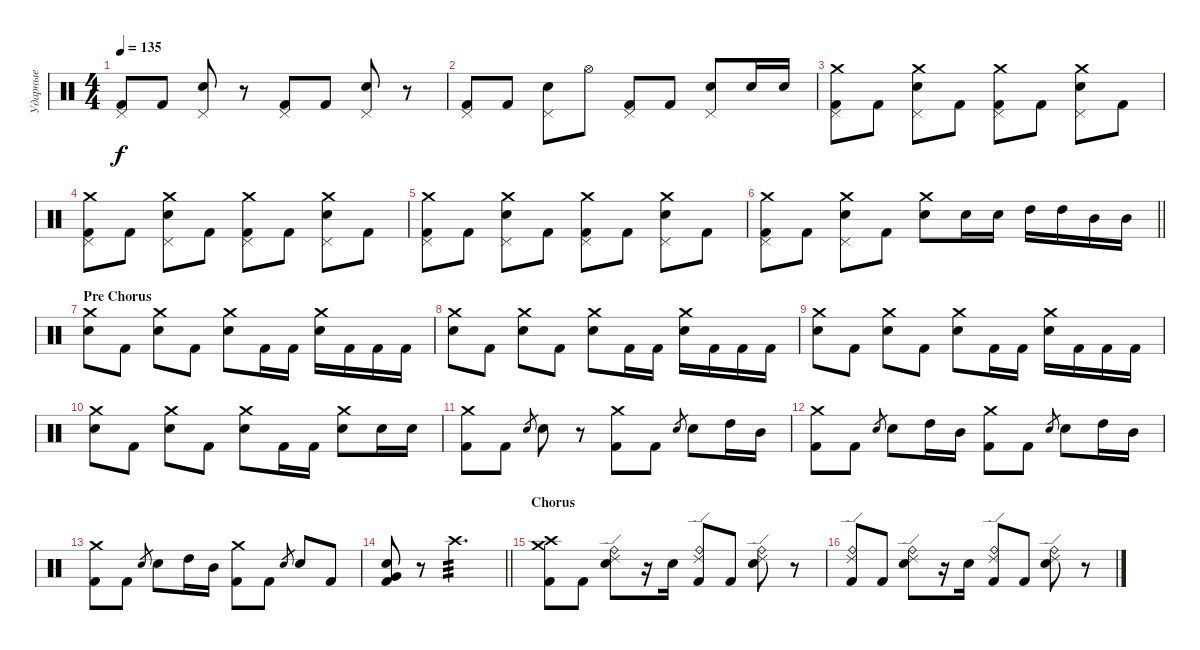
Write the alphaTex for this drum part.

\track ("Ударные" "Ударные") {instrument percussion}
\staff {score}
\articulation defaults
\ts (4 4)
\tempo 135
\clef neutral
\ks c
("Pedal Hi-Hat (hit)" "Kick (hit) 2").8{dy f} "Kick (hit) 2".8 ("Pedal Hi-Hat (hit)" "Electric Snare (hit)").8 r.8 ("Pedal Hi-Hat (hit)" "Kick (hit) 2").8 "Kick (hit) 2".8 ("Pedal Hi-Hat (hit)" "Electric Snare (hit)").8 r.8 |
("Pedal Hi-Hat (hit)" "Kick (hit) 2").8 "Kick (hit) 2".8 ("Pedal Hi-Hat (hit)" "Electric Snare (hit)").8 "Hi-Hat (open)".8 ("Pedal Hi-Hat (hit)" "Kick (hit) 2").8 "Kick (hit) 2".8 ("Pedal Hi-Hat (hit)" "Electric Snare (hit)").8 "Electric Snare (hit)".16 "Electric Snare (hit)".16 |
("Crash medium (hit)" "Pedal Hi-Hat (hit)" "Kick (hit) 2").8 "Kick (hit) 2".8 ("Crash medium (hit)" "Pedal Hi-Hat (hit)" "Electric Snare (hit)").8 "Kick (hit) 2".8 ("Crash medium (hit)" "Pedal Hi-Hat (hit)" "Kick (hit) 2").8 "Kick (hit) 2".8 ("Crash medium (hit)" "Pedal Hi-Hat (hit)" "Electric Snare (hit)").8 "Kick (hit) 2".8 |
("Crash medium (hit)" "Pedal Hi-Hat (hit)" "Kick (hit) 2").8 "Kick (hit) 2".8 ("Crash medium (hit)" "Pedal Hi-Hat (hit)" "Electric Snare (hit)").8 "Kick (hit) 2".8 ("Crash medium (hit)" "Pedal Hi-Hat (hit)" "Kick (hit) 2").8 "Kick (hit) 2".8 ("Crash medium (hit)" "Pedal Hi-Hat (hit)" "Electric Snare (hit)").8 "Kick (hit) 2".8 |
("Crash medium (hit)" "Pedal Hi-Hat (hit)" "Kick (hit) 2").8 "Kick (hit) 2".8 ("Crash medium (hit)" "Pedal Hi-Hat (hit)" "Electric Snare (hit)").8 "Kick (hit) 2".8 ("Crash medium (hit)" "Pedal Hi-Hat (hit)" "Kick (hit) 2").8 "Kick (hit) 2".8 ("Crash medium (hit)" "Pedal Hi-Hat (hit)" "Electric Snare (hit)").8 "Kick (hit) 2".8 |
\barLineRight lightlight
("Crash medium (hit)" "Pedal Hi-Hat (hit)" "Kick (hit) 2").8 "Kick (hit) 2".8 ("Crash medium (hit)" "Pedal Hi-Hat (hit)" "Electric Snare (hit)").8 "Kick (hit) 2".8 ("Crash medium (hit)" "Electric Snare (hit)").8 "Electric Snare (hit)".16 "Electric Snare (hit)".16 "High Tom (hit)".16 "High Tom (hit)".16 "Mid Tom (hit)".16 "Mid Tom (hit)".16 |
\section ("" "Pre Chorus")
("Crash medium (hit)" "Electric Snare (hit)").8 "Kick (hit) 2".8 ("Crash medium (hit)" "Electric Snare (hit)").8 "Kick (hit) 2".8 ("Crash medium (hit)" "Electric Snare (hit)").8 "Kick (hit) 2".16 "Kick (hit) 2".16 ("Crash medium (hit)" "Electric Snare (hit)").16 "Kick (hit) 2".16 "Kick (hit) 2".16 "Kick (hit) 2".16 |
("Crash medium (hit)" "Electric Snare (hit)").8 "Kick (hit) 2".8 ("Crash medium (hit)" "Electric Snare (hit)").8 "Kick (hit) 2".8 ("Crash medium (hit)" "Electric Snare (hit)").8 "Kick (hit) 2".16 "Kick (hit) 2".16 ("Crash medium (hit)" "Electric Snare (hit)").16 "Kick (hit) 2".16 "Kick (hit) 2".16 "Kick (hit) 2".16 |
("Crash medium (hit)" "Electric Snare (hit)").8 "Kick (hit) 2".8 ("Crash medium (hit)" "Electric Snare (hit)").8 "Kick (hit) 2".8 ("Crash medium (hit)" "Electric Snare (hit)").8 "Kick (hit) 2".16 "Kick (hit) 2".16 ("Crash medium (hit)" "Electric Snare (hit)").16 "Kick (hit) 2".16 "Kick (hit) 2".16 "Kick (hit) 2".16 |
("Crash medium (hit)" "Electric Snare (hit)").8 "Kick (hit) 2".8 ("Crash medium (hit)" "Electric Snare (hit)").8 "Kick (hit) 2".8 ("Crash medium (hit)" "Electric Snare (hit)").8 "Kick (hit) 2".16 "Kick (hit) 2".16 ("Crash medium (hit)" "Electric Snare (hit)").8 "Electric Snare (hit)".16 "Electric Snare (hit)".16 |
("Crash medium (hit)" "Kick (hit) 2").8 "Kick (hit) 2".8 "Electric Snare (hit)".8{gr} "Electric Snare (hit)".8 r.8 ("Crash medium (hit)" "Kick (hit) 2").8 "Kick (hit) 2".8 "Electric Snare (hit)".8{gr} "Electric Snare (hit)".8 "High Tom (hit)".16 "Mid Tom (hit)".16 |
("Crash medium (hit)" "Kick (hit) 2").8 "Kick (hit) 2".8 "Electric Snare (hit)".8{gr} "Electric Snare (hit)".8 "High Tom (hit)".16 "Mid Tom (hit)".16 ("Crash medium (hit)" "Kick (hit) 2").8 "Kick (hit) 2".8 "Electric Snare (hit)".8{gr} "Electric Snare (hit)".8 "High Tom (hit)".16 "Mid Tom (hit)".16 |
("Crash medium (hit)" "Kick (hit) 2").8 "Kick (hit) 2".8 "Electric Snare (hit)".8{gr} "Electric Snare (hit)".8 "High Tom (hit)".16 "Mid Tom (hit)".16 ("Crash medium (hit)" "Kick (hit) 2").8 "Kick (hit) 2".8 "Electric Snare (hit)".8{gr} "Electric Snare (hit)".8 "Kick (hit) 2".8 |
\barLineRight lightlight
("Electric Snare (hit)" "Very Low Tom (hit)" "Kick (hit) 2").8 r.8{volume 0} "Crash high (hit)".2{d tp 3 volume 13} |
\section ("" "Chorus")
("Crash medium (hit)" "Crash high (hit)" "Kick (hit) 2").8{volume 13} "Kick (hit) 2".8 ("Ride (bell)" "Ride (edge) 2" "Electric Snare (hit)").8 r.16 "Electric Snare (hit)".16 ("Ride (bell)" "Ride (edge) 2" "Kick (hit) 2").8 "Kick (hit) 2".8 ("Ride (bell)" "Ride (edge) 2" "Electric Snare (hit)").8 r.8 |
("Ride (bell)" "Ride (edge) 2" "Kick (hit) 2").8 "Kick (hit) 2".8 ("Ride (bell)" "Ride (edge) 2" "Electric Snare (hit)").8 r.16 "Electric Snare (hit)".16 ("Ride (bell)" "Ride (edge) 2" "Kick (hit) 2").8 "Kick (hit) 2".8 ("Ride (bell)" "Ride (edge) 2" "Electric Snare (hit)").8 r.8
